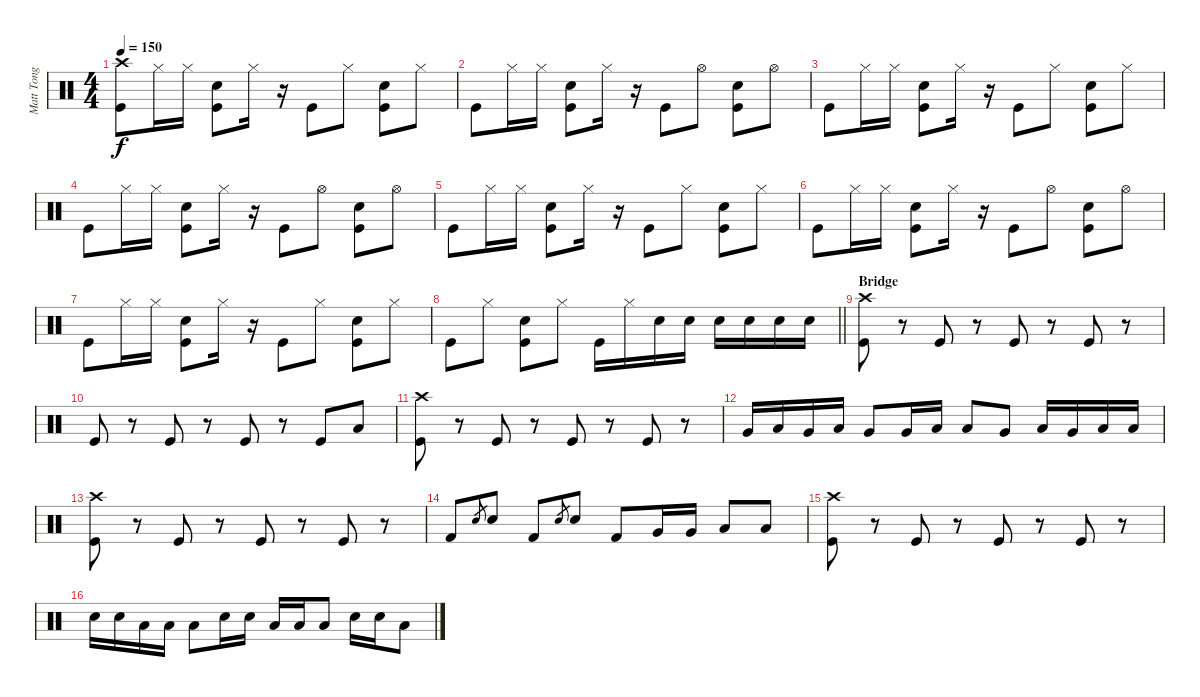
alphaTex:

\track ("Matt Tong (Drums)" "Matt Tong ") {instrument percussion}
\staff {score}
\articulation defaults
\ts (4 4)
\tempo 150
\clef neutral
\ks c
("Crash high (hit)" "Kick (hit)").8{dy f} "Hi-Hat (closed)".16 "Hi-Hat (closed)".16 ("Electric Snare (hit)" "Kick (hit)").8 "Hi-Hat (closed)".16 r.16 "Kick (hit)".8 "Hi-Hat (closed)".8 ("Electric Snare (hit)" "Kick (hit)").8 "Hi-Hat (closed)".8 |
"Kick (hit)".8 "Hi-Hat (closed)".16 "Hi-Hat (closed)".16 ("Electric Snare (hit)" "Kick (hit)").8 "Hi-Hat (closed)".16 r.16 "Kick (hit)".8 "Hi-Hat (open)".8 ("Electric Snare (hit)" "Kick (hit)").8 "Hi-Hat (open)".8 |
"Kick (hit)".8 "Hi-Hat (closed)".16 "Hi-Hat (closed)".16 ("Electric Snare (hit)" "Kick (hit)").8 "Hi-Hat (closed)".16 r.16 "Kick (hit)".8 "Hi-Hat (closed)".8 ("Electric Snare (hit)" "Kick (hit)").8 "Hi-Hat (closed)".8 |
"Kick (hit)".8 "Hi-Hat (closed)".16 "Hi-Hat (closed)".16 ("Electric Snare (hit)" "Kick (hit)").8 "Hi-Hat (closed)".16 r.16 "Kick (hit)".8 "Hi-Hat (open)".8 ("Electric Snare (hit)" "Kick (hit)").8 "Hi-Hat (open)".8 |
"Kick (hit)".8 "Hi-Hat (closed)".16 "Hi-Hat (closed)".16 ("Electric Snare (hit)" "Kick (hit)").8 "Hi-Hat (closed)".16 r.16 "Kick (hit)".8 "Hi-Hat (closed)".8 ("Electric Snare (hit)" "Kick (hit)").8 "Hi-Hat (closed)".8 |
"Kick (hit)".8 "Hi-Hat (closed)".16 "Hi-Hat (closed)".16 ("Electric Snare (hit)" "Kick (hit)").8 "Hi-Hat (closed)".16 r.16 "Kick (hit)".8 "Hi-Hat (open)".8 ("Electric Snare (hit)" "Kick (hit)").8 "Hi-Hat (open)".8 |
"Kick (hit)".8 "Hi-Hat (closed)".16 "Hi-Hat (closed)".16 ("Electric Snare (hit)" "Kick (hit)").8 "Hi-Hat (closed)".16 r.16 "Kick (hit)".8 "Hi-Hat (closed)".8 ("Electric Snare (hit)" "Kick (hit)").8 "Hi-Hat (closed)".8 |
\barLineRight lightlight "Kick (hit)".8 "Hi-Hat (closed)".8
("Electric Snare (hit)" "Kick (hit)").8 "Hi-Hat (closed)".8 "Kick (hit)".16 "Hi-Hat (closed)".16 "Electric Snare (hit)".16 "Electric Snare (hit)".16 "Electric Snare (hit)".16 "Electric Snare (hit)".16 "Electric Snare (hit)".16 "Electric Snare (hit)".16 |
\section ("" "Bridge")
("Crash high (hit)" "Kick (hit)").8 r.8 "Kick (hit)".8 r.8 "Kick (hit)".8 r.8 "Kick (hit)".8 r.8 |
"Kick (hit)".8 r.8 "Kick (hit)".8 r.8 "Kick (hit)".8 r.8 "Kick (hit)".8 "Low Tom (hit)".8 |
("Crash high (hit)" "Kick (hit)").8 r.8 "Kick (hit)".8 r.8 "Kick (hit)".8 r.8 "Kick (hit)".8 r.8 |
"Very Low Tom (hit)".16 "Low Tom (hit)".16 "Very Low Tom (hit)".16 "Low Tom (hit)".16 "Very Low Tom (hit)".8 "Very Low Tom (hit)".16 "Low Tom (hit)".16 "Low Tom (hit)".8 "Very Low Tom (hit)".8 "Low Tom (hit)".16 "Very Low Tom (hit)".16 "Low Floor Tom (hit)".16 "Low Floor Tom (hit)".16 |
("Crash high (hit)" "Kick (hit)").8 r.8 "Kick (hit)".8 r.8 "Kick (hit)".8 r.8 "Kick (hit)".8 r.8 |
"Kick (hit) 2".8 "Electric Snare (hit)".8{gr} "Electric Snare (hit)".8 "Kick (hit) 2".8 "Electric Snare (hit)".8{gr} "Electric Snare (hit)".8 "Kick (hit) 2".8 "Very Low Tom (hit)".16 "Very Low Tom (hit)".16 "Low Tom (hit)".8 "Low Tom (hit)".8 |
("Crash high (hit)" "Kick (hit)").8 r.8 "Kick (hit)".8 r.8 "Kick (hit)".8 r.8 "Kick (hit)".8 r.8 |
"Electric Snare (hit)".16 "Electric Snare (hit)".16 "Low Floor Tom (hit)".16 "Low Floor Tom (hit)".16 "Low Floor Tom (hit)".8 "Electric Snare (hit)".16 "Electric Snare (hit)".16 "Low Floor Tom (hit)".16 "Low Floor Tom (hit)".16 "Low Floor Tom (hit)".8 "Electric Snare (hit)".16 "Electric Snare (hit)".16 "Low Floor Tom (hit)".8
